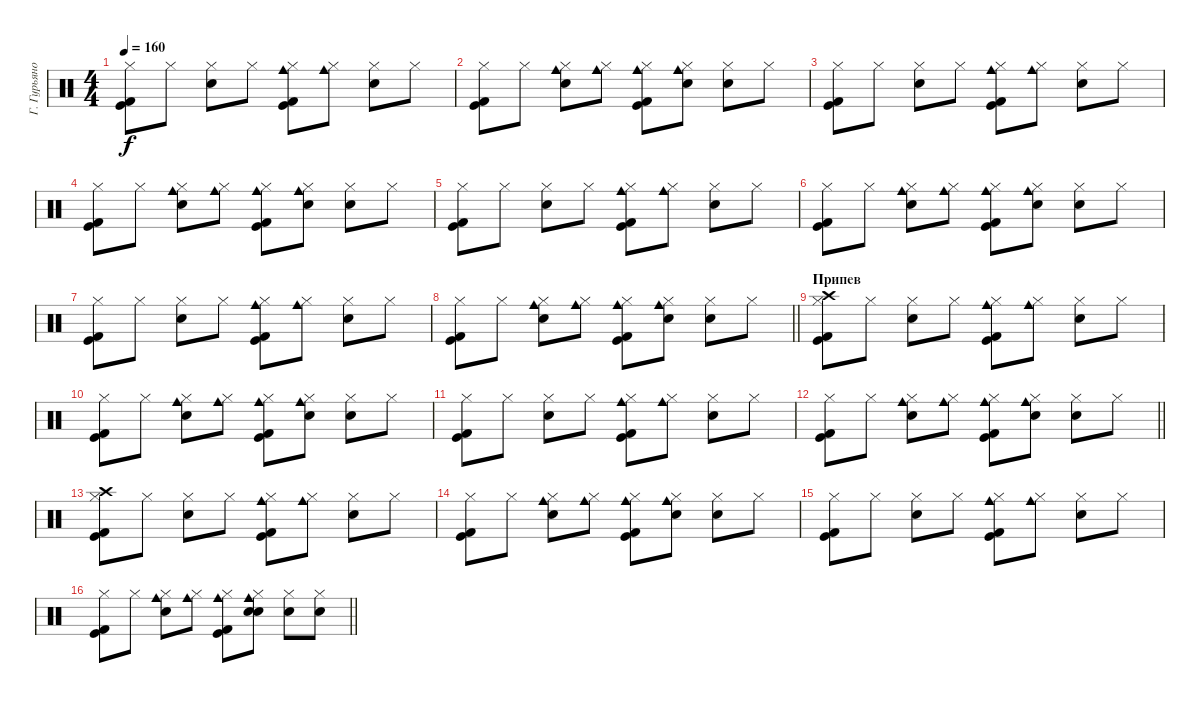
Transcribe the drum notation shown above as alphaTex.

\track ("Г. Гурьянов" "Г. Гурьяно") {instrument percussion}
\staff
\articulation defaults
\ts (4 4)
\tempo 160
\clef neutral
\ks c
("Hi-Hat (closed)" "Kick (hit)" "Kick (hit) 2").8{dy f} "Hi-Hat (closed)".8 ("Hi-Hat (closed)" "Snare (hit) 2").8 "Hi-Hat (closed)".8 ("Hi-Hat (closed)" "Cowbell medium (hit)" "Kick (hit)" "Kick (hit) 2").8 ("Hi-Hat (closed)" "Cowbell medium (hit)").8 ("Hi-Hat (closed)" "Snare (hit) 2").8 "Hi-Hat (closed)".8 |
("Hi-Hat (closed)" "Kick (hit)" "Kick (hit) 2").8 "Hi-Hat (closed)".8 ("Hi-Hat (closed)" "Cowbell medium (hit)" "Snare (hit) 2").8 ("Hi-Hat (closed)" "Cowbell medium (hit)").8 ("Hi-Hat (closed)" "Cowbell medium (hit)" "Kick (hit)" "Kick (hit) 2").8 ("Hi-Hat (closed)" "Cowbell medium (hit)" "Hand Clap (hit)").8 ("Hi-Hat (closed)" "Snare (hit) 2").8 "Hi-Hat (closed)".8 |
("Hi-Hat (closed)" "Kick (hit)" "Kick (hit) 2").8 "Hi-Hat (closed)".8 ("Hi-Hat (closed)" "Snare (hit) 2").8 "Hi-Hat (closed)".8 ("Hi-Hat (closed)" "Cowbell medium (hit)" "Kick (hit)" "Kick (hit) 2").8 ("Hi-Hat (closed)" "Cowbell medium (hit)").8 ("Hi-Hat (closed)" "Snare (hit) 2").8 "Hi-Hat (closed)".8 |
("Hi-Hat (closed)" "Kick (hit)" "Kick (hit) 2").8 "Hi-Hat (closed)".8 ("Hi-Hat (closed)" "Cowbell medium (hit)" "Snare (hit) 2").8 ("Hi-Hat (closed)" "Cowbell medium (hit)").8 ("Hi-Hat (closed)" "Cowbell medium (hit)" "Kick (hit)" "Kick (hit) 2").8 ("Hi-Hat (closed)" "Cowbell medium (hit)" "Hand Clap (hit)").8 ("Hi-Hat (closed)" "Snare (hit) 2").8 "Hi-Hat (closed)".8 |
("Hi-Hat (closed)" "Kick (hit)" "Kick (hit) 2").8 "Hi-Hat (closed)".8 ("Hi-Hat (closed)" "Snare (hit) 2").8 "Hi-Hat (closed)".8 ("Hi-Hat (closed)" "Cowbell medium (hit)" "Kick (hit)" "Kick (hit) 2").8 ("Hi-Hat (closed)" "Cowbell medium (hit)").8 ("Hi-Hat (closed)" "Snare (hit) 2").8 "Hi-Hat (closed)".8 |
("Hi-Hat (closed)" "Kick (hit)" "Kick (hit) 2").8 "Hi-Hat (closed)".8 ("Hi-Hat (closed)" "Cowbell medium (hit)" "Snare (hit) 2").8 ("Hi-Hat (closed)" "Cowbell medium (hit)").8 ("Hi-Hat (closed)" "Cowbell medium (hit)" "Kick (hit)" "Kick (hit) 2").8 ("Hi-Hat (closed)" "Cowbell medium (hit)" "Hand Clap (hit)").8 ("Hi-Hat (closed)" "Snare (hit) 2").8 "Hi-Hat (closed)".8 |
("Hi-Hat (closed)" "Kick (hit)" "Kick (hit) 2").8 "Hi-Hat (closed)".8 ("Hi-Hat (closed)" "Snare (hit) 2").8 "Hi-Hat (closed)".8 ("Hi-Hat (closed)" "Cowbell medium (hit)" "Kick (hit)" "Kick (hit) 2").8 ("Hi-Hat (closed)" "Cowbell medium (hit)").8 ("Hi-Hat (closed)" "Snare (hit) 2").8 "Hi-Hat (closed)".8 |
\barLineRight lightlight
("Hi-Hat (closed)" "Kick (hit)" "Kick (hit) 2").8 "Hi-Hat (closed)".8 ("Hi-Hat (closed)" "Cowbell medium (hit)" "Snare (hit) 2").8 ("Hi-Hat (closed)" "Cowbell medium (hit)").8 ("Hi-Hat (closed)" "Cowbell medium (hit)" "Kick (hit)" "Kick (hit) 2").8 ("Hi-Hat (closed)" "Cowbell medium (hit)" "Hand Clap (hit)").8 ("Hi-Hat (closed)" "Snare (hit) 2").8 "Hi-Hat (closed)".8 |
\section ("" "Припев")
("Hi-Hat (closed)" "Crash high (hit)" "Kick (hit)" "Kick (hit) 2").8 "Hi-Hat (closed)".8 ("Hi-Hat (closed)" "Snare (hit) 2").8 "Hi-Hat (closed)".8 ("Hi-Hat (closed)" "Cowbell medium (hit)" "Kick (hit)" "Kick (hit) 2").8 ("Hi-Hat (closed)" "Cowbell medium (hit)").8 ("Hi-Hat (closed)" "Snare (hit) 2").8 "Hi-Hat (closed)".8 |
("Hi-Hat (closed)" "Kick (hit)" "Kick (hit) 2").8 "Hi-Hat (closed)".8 ("Hi-Hat (closed)" "Cowbell medium (hit)" "Snare (hit) 2").8 ("Hi-Hat (closed)" "Cowbell medium (hit)").8 ("Hi-Hat (closed)" "Cowbell medium (hit)" "Kick (hit)" "Kick (hit) 2").8 ("Hi-Hat (closed)" "Cowbell medium (hit)" "Hand Clap (hit)").8 ("Hi-Hat (closed)" "Snare (hit) 2").8 "Hi-Hat (closed)".8 |
("Hi-Hat (closed)" "Kick (hit)" "Kick (hit) 2").8 "Hi-Hat (closed)".8 ("Hi-Hat (closed)" "Snare (hit) 2").8 "Hi-Hat (closed)".8 ("Hi-Hat (closed)" "Cowbell medium (hit)" "Kick (hit)" "Kick (hit) 2").8 ("Hi-Hat (closed)" "Cowbell medium (hit)").8 ("Hi-Hat (closed)" "Snare (hit) 2").8 "Hi-Hat (closed)".8 |
\barLineRight lightlight
("Hi-Hat (closed)" "Kick (hit)" "Kick (hit) 2").8 "Hi-Hat (closed)".8 ("Hi-Hat (closed)" "Cowbell medium (hit)" "Snare (hit) 2").8 ("Hi-Hat (closed)" "Cowbell medium (hit)").8 ("Hi-Hat (closed)" "Cowbell medium (hit)" "Kick (hit)" "Kick (hit) 2").8 ("Hi-Hat (closed)" "Cowbell medium (hit)" "Hand Clap (hit)").8 ("Hi-Hat (closed)" "Snare (hit) 2").8 "Hi-Hat (closed)".8 |
("Hi-Hat (closed)" "Crash high (hit)" "Kick (hit)" "Kick (hit) 2").8 "Hi-Hat (closed)".8 ("Hi-Hat (closed)" "Snare (hit) 2").8 "Hi-Hat (closed)".8 ("Hi-Hat (closed)" "Cowbell medium (hit)" "Kick (hit)" "Kick (hit) 2").8 ("Hi-Hat (closed)" "Cowbell medium (hit)").8 ("Hi-Hat (closed)" "Snare (hit) 2").8 "Hi-Hat (closed)".8 |
("Hi-Hat (closed)" "Kick (hit)" "Kick (hit) 2").8 "Hi-Hat (closed)".8 ("Hi-Hat (closed)" "Cowbell medium (hit)" "Snare (hit) 2").8 ("Hi-Hat (closed)" "Cowbell medium (hit)").8 ("Hi-Hat (closed)" "Cowbell medium (hit)" "Kick (hit)" "Kick (hit) 2").8 ("Hi-Hat (closed)" "Cowbell medium (hit)" "Hand Clap (hit)").8 ("Hi-Hat (closed)" "Snare (hit) 2").8 "Hi-Hat (closed)".8 |
("Hi-Hat (closed)" "Kick (hit)" "Kick (hit) 2").8 "Hi-Hat (closed)".8 ("Hi-Hat (closed)" "Snare (hit) 2").8 "Hi-Hat (closed)".8 ("Hi-Hat (closed)" "Cowbell medium (hit)" "Kick (hit)" "Kick (hit) 2").8 ("Hi-Hat (closed)" "Cowbell medium (hit)").8 ("Hi-Hat (closed)" "Snare (hit) 2").8 "Hi-Hat (closed)".8 |
\barLineRight lightlight
("Hi-Hat (closed)" "Kick (hit)" "Kick (hit) 2").8 "Hi-Hat (closed)".8 ("Hi-Hat (closed)" "Cowbell medium (hit)" "Snare (hit) 2").8 ("Hi-Hat (closed)" "Cowbell medium (hit)").8 ("Hi-Hat (closed)" "Cowbell medium (hit)" "Kick (hit)" "Kick (hit) 2").8 ("Hi-Hat (closed)" "Cowbell medium (hit)" "Snare (hit) 2" "Hand Clap (hit)").8 ("Hi-Hat (closed)" "Snare (hit) 2").8 ("Hi-Hat (closed)" "Snare (hit) 2").8
